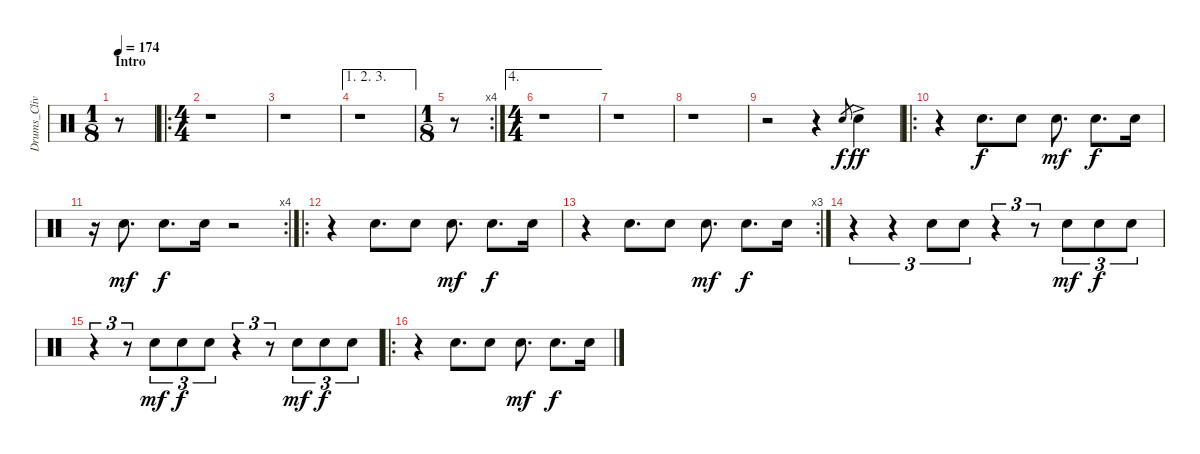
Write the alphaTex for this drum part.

\track ("Drums_CliveBurr" "Drums_Cliv") {instrument percussion}
\staff {score}
\articulation defaults
\ts (1 8)
\section ("" "Intro")
\tempo 174
\clef neutral
\ks c
r.8{dy f} |
\ro
\ts (4 4)
r.1 |
r.1 |
\ae (1 2 3)
r.1 |
\rc 4
\ts (1 8)
r.8 |
\ae 4
\ts (4 4)
r.1 |
r.1 |
r.1 |
r.2 r.4 "Snare (hit) 2".8{gr} "Snare (hit) 2"{ac}.4{dy ff} |
\ro
r.4 "Snare (hit) 2".8{d dy f} "Snare (hit) 2".8 "Snare (hit) 2".8{d dy mf} "Snare (hit) 2".8{d dy f} "Snare (hit) 2".16 |
\rc 4
r.16 "Snare (hit) 2".8{d dy mf} "Snare (hit) 2".8{d dy f} "Snare (hit) 2".16 r.2 |
\ro
r.4 "Snare (hit) 2".8{d} "Snare (hit) 2".8 "Snare (hit) 2".8{d dy mf} "Snare (hit) 2".8{d dy f} "Snare (hit) 2".16 |
\rc 3
r.4 "Snare (hit) 2".8{d} "Snare (hit) 2".8 "Snare (hit) 2".8{d dy mf} "Snare (hit) 2".8{d dy f} "Snare (hit) 2".16 |
r.4{tu (3 2)} r.4{tu (3 2)} "Snare (hit) 2".8{tu (3 2)} "Snare (hit) 2".8{tu (3 2)} r.4{tu (3 2)} r.8{tu (3 2)} "Snare (hit) 2".8{tu (3 2) dy mf} "Snare (hit) 2".8{tu (3 2) dy f} "Snare (hit) 2".8{tu (3 2)} |
r.4{tu (3 2)} r.8{tu (3 2)} "Snare (hit) 2".8{tu (3 2) dy mf} "Snare (hit) 2".8{tu (3 2) dy f} "Snare (hit) 2".8{tu (3 2)} r.4{tu (3 2)} r.8{tu (3 2)} "Snare (hit) 2".8{tu (3 2) dy mf} "Snare (hit) 2".8{tu (3 2) dy f} "Snare (hit) 2".8{tu (3 2)} |
\ro
r.4 "Snare (hit) 2".8{d} "Snare (hit) 2".8 "Snare (hit) 2".8{d dy mf} "Snare (hit) 2".8{d dy f} "Snare (hit) 2".16
